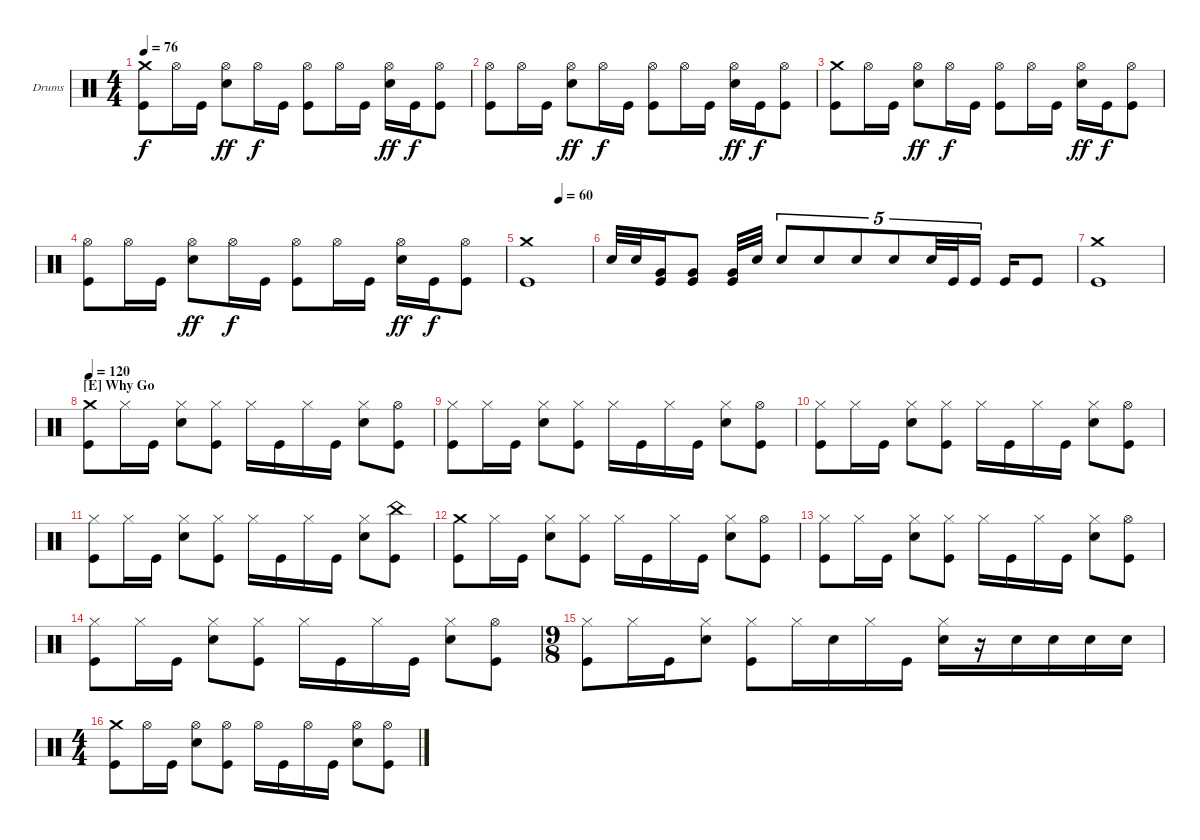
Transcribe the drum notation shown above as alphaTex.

\defaultSystemsLayout 4
\bracketExtendMode nobrackets
\firstSystemTrackNameOrientation horizontal
\otherSystemsTrackNameOrientation horizontal
\track ("Dave Krusen" "Drums") {instrument percussion}
\staff {score}
\articulation defaults
\ts (4 4)
\tempo 76
\clef neutral
\ks c
("Crash medium (hit)" "Kick (hit)").8{dy f} "Hi-Hat (open)".16 "Kick (hit)".16 ("Snare (hit) 2" "Hi-Hat (open)").8{dy ff} "Hi-Hat (open)".16{dy f} "Kick (hit)".16 ("Kick (hit)" "Hi-Hat (open)").8 "Hi-Hat (open)".16 "Kick (hit)".16 ("Snare (hit) 2" "Hi-Hat (open)").16{dy ff} "Kick (hit)".16{dy f} ("Kick (hit)" "Hi-Hat (open)").8 |
("Hi-Hat (open)" "Kick (hit)").8 "Hi-Hat (open)".16 "Kick (hit)".16 ("Snare (hit) 2" "Hi-Hat (open)").8{dy ff} "Hi-Hat (open)".16{dy f} "Kick (hit)".16 ("Kick (hit)" "Hi-Hat (open)").8 "Hi-Hat (open)".16 "Kick (hit)".16 ("Snare (hit) 2" "Hi-Hat (open)").16{dy ff} "Kick (hit)".16{dy f} ("Kick (hit)" "Hi-Hat (open)").8 |
("Crash medium (hit)" "Kick (hit)").8 "Hi-Hat (open)".16 "Kick (hit)".16 ("Snare (hit) 2" "Hi-Hat (open)").8{dy ff} "Hi-Hat (open)".16{dy f} "Kick (hit)".16 ("Kick (hit)" "Hi-Hat (open)").8 "Hi-Hat (open)".16 "Kick (hit)".16 ("Snare (hit) 2" "Hi-Hat (open)").16{dy ff} "Kick (hit)".16{dy f} ("Kick (hit)" "Hi-Hat (open)").8 |
("Hi-Hat (open)" "Kick (hit)").8 "Hi-Hat (open)".16 "Kick (hit)".16 ("Snare (hit) 2" "Hi-Hat (open)").8{dy ff} "Hi-Hat (open)".16{dy f} "Kick (hit)".16 ("Kick (hit)" "Hi-Hat (open)").8 "Hi-Hat (open)".16 "Kick (hit)".16 ("Snare (hit) 2" "Hi-Hat (open)").16{dy ff} "Kick (hit)".16{dy f} ("Kick (hit)" "Hi-Hat (open)").8 |
\tempo (60 0.5)
("Crash medium (hit)" "Kick (hit)").1 |
"Snare (hit) 2".32 "Snare (hit) 2".32 ("Very Low Tom (hit)" "Kick (hit)").16 ("Very Low Tom (hit)" "Kick (hit)").8 ("Very Low Tom (hit)" "Kick (hit)").32 "Snare (hit) 2".32 "Snare (hit) 2".8{tu (5 4)} "Snare (hit) 2".8{tu (5 4)} "Snare (hit) 2".8{tu (5 4)} "Snare (hit) 2".8{tu (5 4)} "Snare (hit) 2".32{tu (5 4)} "Kick (hit)".32{tu (5 4)} "Kick (hit)".16{tu (5 4)} "Kick (hit)".16 "Kick (hit)".8 |
("Crash medium (hit)" "Kick (hit)").1 |
\section ("E" "Why Go")
\tempo 120
("Crash medium (hit)" "Kick (hit)").8 "Hi-Hat (closed)".16 "Kick (hit)".16 ("Hi-Hat (closed)" "Snare (hit) 2").8 ("Hi-Hat (closed)" "Kick (hit)").8 "Hi-Hat (closed)".16 "Kick (hit)".16 "Hi-Hat (closed)".16 "Kick (hit)".16 ("Hi-Hat (closed)" "Snare (hit) 2").8 ("Hi-Hat (open)" "Kick (hit)").8 |
("Hi-Hat (closed)" "Kick (hit)").8 "Hi-Hat (closed)".16 "Kick (hit)".16 ("Hi-Hat (closed)" "Snare (hit) 2").8 ("Hi-Hat (closed)" "Kick (hit)").8 "Hi-Hat (closed)".16 "Kick (hit)".16 "Hi-Hat (closed)".16 "Kick (hit)".16 ("Hi-Hat (closed)" "Snare (hit) 2").8 ("Hi-Hat (open)" "Kick (hit)").8 |
("Hi-Hat (closed)" "Kick (hit)").8 "Hi-Hat (closed)".16 "Kick (hit)".16 ("Hi-Hat (closed)" "Snare (hit) 2").8 ("Hi-Hat (closed)" "Kick (hit)").8 "Hi-Hat (closed)".16 "Kick (hit)".16 "Hi-Hat (closed)".16 "Kick (hit)".16 ("Hi-Hat (closed)" "Snare (hit) 2").8 ("Hi-Hat (open)" "Kick (hit)").8 |
("Hi-Hat (closed)" "Kick (hit)").8 "Hi-Hat (closed)".16 "Kick (hit)".16 ("Hi-Hat (closed)" "Snare (hit) 2").8 ("Hi-Hat (closed)" "Kick (hit)").8 "Hi-Hat (closed)".16 "Kick (hit)".16 "Hi-Hat (closed)".16 "Kick (hit)".16 ("Hi-Hat (closed)" "Snare (hit) 2").8 ("China (hit)" "Kick (hit)").8 |
("Crash medium (hit)" "Kick (hit)").8 "Hi-Hat (closed)".16 "Kick (hit)".16 ("Hi-Hat (closed)" "Snare (hit) 2").8 ("Hi-Hat (closed)" "Kick (hit)").8 "Hi-Hat (closed)".16 "Kick (hit)".16 "Hi-Hat (closed)".16 "Kick (hit)".16 ("Hi-Hat (closed)" "Snare (hit) 2").8 ("Hi-Hat (open)" "Kick (hit)").8 |
("Hi-Hat (closed)" "Kick (hit)").8 "Hi-Hat (closed)".16 "Kick (hit)".16 ("Hi-Hat (closed)" "Snare (hit) 2").8 ("Hi-Hat (closed)" "Kick (hit)").8 "Hi-Hat (closed)".16 "Kick (hit)".16 "Hi-Hat (closed)".16 "Kick (hit)".16 ("Hi-Hat (closed)" "Snare (hit) 2").8 ("Hi-Hat (open)" "Kick (hit)").8 |
("Hi-Hat (closed)" "Kick (hit)").8 "Hi-Hat (closed)".16 "Kick (hit)".16 ("Hi-Hat (closed)" "Snare (hit) 2").8 ("Hi-Hat (closed)" "Kick (hit)").8 "Hi-Hat (closed)".16 "Kick (hit)".16 "Hi-Hat (closed)".16 "Kick (hit)".16 ("Hi-Hat (closed)" "Snare (hit) 2").8 ("Hi-Hat (open)" "Kick (hit)").8 |
\ts (9 8)
("Hi-Hat (closed)" "Kick (hit)").8 "Hi-Hat (closed)".16 "Kick (hit)".16 ("Hi-Hat (closed)" "Snare (hit) 2").8 ("Hi-Hat (closed)" "Kick (hit)").8 "Hi-Hat (closed)".16 "Snare (hit) 2".16 "Hi-Hat (closed)".16 "Kick (hit)".16 ("Hi-Hat (closed)" "Snare (hit) 2").16 r.16 "Snare (hit) 2".16 "Snare (hit) 2".16 "Snare (hit) 2".16 "Snare (hit) 2".16 |
\ts (4 4)
("Crash medium (hit)" "Kick (hit)").8 "Hi-Hat (open)".16 "Kick (hit)".16 ("Hi-Hat (open)" "Snare (hit) 2").8 ("Hi-Hat (open)" "Kick (hit)").8 "Hi-Hat (open)".16 "Kick (hit)".16 "Hi-Hat (open)".16 "Kick (hit)".16 ("Hi-Hat (open)" "Snare (hit) 2").8 ("Hi-Hat (open)" "Kick (hit)").8
